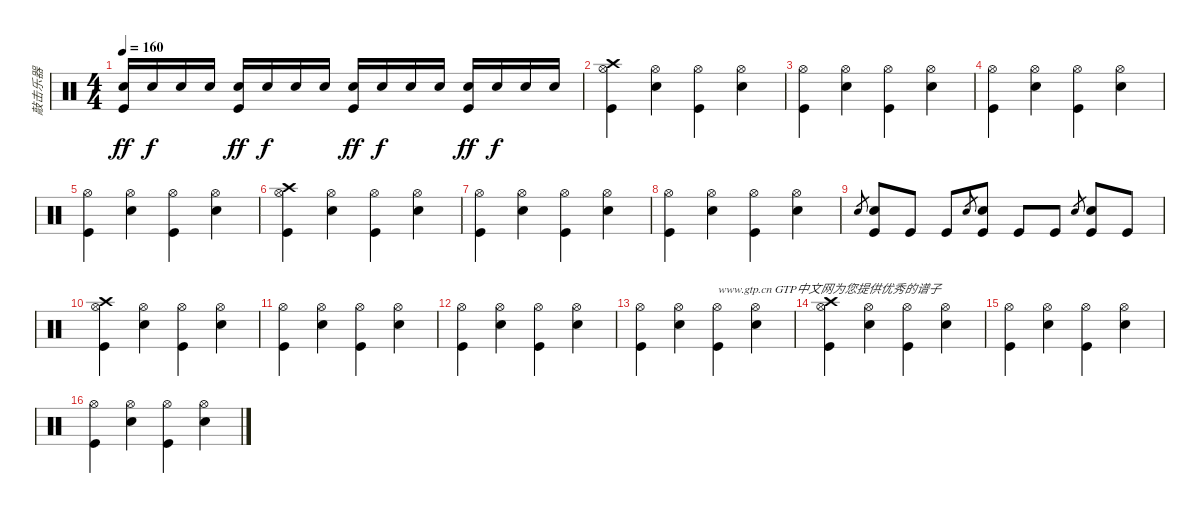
\track ("敲击乐器" "敲击乐器") {instrument percussion}
\staff {score}
\articulation defaults
\ts (4 4)
\tempo 160
\clef neutral
\ks c
("Snare (hit) 2" "Kick (hit)").16{dy ff} "Snare (hit) 2".16{dy f} "Snare (hit) 2".16 "Snare (hit) 2".16 ("Snare (hit) 2" "Kick (hit)").16{dy ff} "Snare (hit) 2".16{dy f} "Snare (hit) 2".16 "Snare (hit) 2".16 ("Snare (hit) 2" "Kick (hit)").16{dy ff} "Snare (hit) 2".16{dy f} "Snare (hit) 2".16 "Snare (hit) 2".16 ("Snare (hit) 2" "Kick (hit)").16{dy ff} "Snare (hit) 2".16{dy f} "Snare (hit) 2".16 "Snare (hit) 2".16 |
("Crash high (hit)" "Hi-Hat (open)" "Kick (hit)").4 ("Snare (hit) 2" "Hi-Hat (open)").4 ("Hi-Hat (open)" "Kick (hit)").4 ("Snare (hit) 2" "Hi-Hat (open)").4 |
("Hi-Hat (open)" "Kick (hit)").4 ("Snare (hit) 2" "Hi-Hat (open)").4 ("Hi-Hat (open)" "Kick (hit)").4 ("Snare (hit) 2" "Hi-Hat (open)").4 |
("Hi-Hat (open)" "Kick (hit)").4 ("Snare (hit) 2" "Hi-Hat (open)").4 ("Hi-Hat (open)" "Kick (hit)").4 ("Snare (hit) 2" "Hi-Hat (open)").4 |
("Hi-Hat (open)" "Kick (hit)").4 ("Snare (hit) 2" "Hi-Hat (open)").4 ("Hi-Hat (open)" "Kick (hit)").4 ("Snare (hit) 2" "Hi-Hat (open)").4 |
("Crash high (hit)" "Hi-Hat (open)" "Kick (hit)").4 ("Snare (hit) 2" "Hi-Hat (open)").4 ("Hi-Hat (open)" "Kick (hit)").4 ("Snare (hit) 2" "Hi-Hat (open)").4 |
("Hi-Hat (open)" "Kick (hit)").4 ("Snare (hit) 2" "Hi-Hat (open)").4 ("Hi-Hat (open)" "Kick (hit)").4 ("Snare (hit) 2" "Hi-Hat (open)").4 |
("Hi-Hat (open)" "Kick (hit)").4 ("Snare (hit) 2" "Hi-Hat (open)").4 ("Hi-Hat (open)" "Kick (hit)").4 ("Snare (hit) 2" "Hi-Hat (open)").4 |
"Snare (hit) 2".8{gr} ("Snare (hit) 2" "Kick (hit)").8 "Kick (hit)".8 "Kick (hit)".8 "Snare (hit) 2".8{gr} ("Snare (hit) 2" "Kick (hit)").8 "Kick (hit)".8 "Kick (hit)".8 "Snare (hit) 2".8{gr} ("Snare (hit) 2" "Kick (hit)").8 "Kick (hit)".8 |
("Crash high (hit)" "Hi-Hat (open)" "Kick (hit)").4 ("Snare (hit) 2" "Hi-Hat (open)").4 ("Hi-Hat (open)" "Kick (hit)").4 ("Snare (hit) 2" "Hi-Hat (open)").4 |
("Hi-Hat (open)" "Kick (hit)").4 ("Snare (hit) 2" "Hi-Hat (open)").4 ("Hi-Hat (open)" "Kick (hit)").4 ("Snare (hit) 2" "Hi-Hat (open)").4 |
("Hi-Hat (open)" "Kick (hit)").4 ("Snare (hit) 2" "Hi-Hat (open)").4 ("Hi-Hat (open)" "Kick (hit)").4 ("Snare (hit) 2" "Hi-Hat (open)").4 |
("Hi-Hat (open)" "Kick (hit)").4 ("Snare (hit) 2" "Hi-Hat (open)").4 ("Hi-Hat (open)" "Kick (hit)").4{txt "www.gtp.cn GTP中文网为您提供优秀的谱子"} ("Snare (hit) 2" "Hi-Hat (open)").4 |
("Crash high (hit)" "Hi-Hat (open)" "Kick (hit)").4 ("Snare (hit) 2" "Hi-Hat (open)").4 ("Hi-Hat (open)" "Kick (hit)").4 ("Snare (hit) 2" "Hi-Hat (open)").4 |
("Hi-Hat (open)" "Kick (hit)").4 ("Snare (hit) 2" "Hi-Hat (open)").4 ("Hi-Hat (open)" "Kick (hit)").4 ("Snare (hit) 2" "Hi-Hat (open)").4 |
("Hi-Hat (open)" "Kick (hit)").4 ("Snare (hit) 2" "Hi-Hat (open)").4 ("Hi-Hat (open)" "Kick (hit)").4 ("Snare (hit) 2" "Hi-Hat (open)").4
